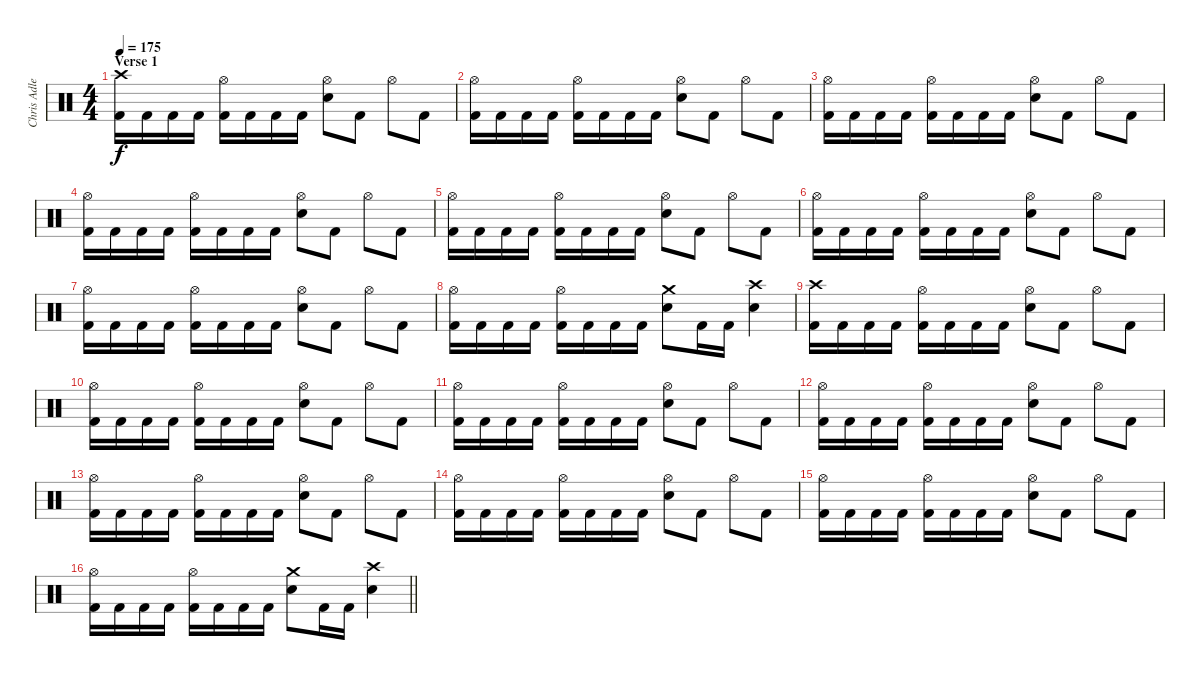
\track ("Chris Adler" "Chris Adle") {instrument percussion}
\staff {score}
\articulation defaults
\ts (4 4)
\section ("" "Verse 1")
\tempo 175
\clef neutral
\ks c
("Crash high (hit)" "Kick (hit) 2").16{dy f} "Kick (hit) 2".16 "Kick (hit) 2".16 "Kick (hit) 2".16 ("Hi-Hat (open)" "Kick (hit) 2").16 "Kick (hit) 2".16 "Kick (hit) 2".16 "Kick (hit) 2".16 ("Hi-Hat (open)" "Electric Snare (hit)").8 "Kick (hit) 2".8 "Hi-Hat (open)".8 "Kick (hit) 2".8 |
("Hi-Hat (open)" "Kick (hit) 2").16 "Kick (hit) 2".16 "Kick (hit) 2".16 "Kick (hit) 2".16 ("Hi-Hat (open)" "Kick (hit) 2").16 "Kick (hit) 2".16 "Kick (hit) 2".16 "Kick (hit) 2".16 ("Hi-Hat (open)" "Electric Snare (hit)").8 "Kick (hit) 2".8 "Hi-Hat (open)".8 "Kick (hit) 2".8 |
("Hi-Hat (open)" "Kick (hit) 2").16 "Kick (hit) 2".16 "Kick (hit) 2".16 "Kick (hit) 2".16 ("Hi-Hat (open)" "Kick (hit) 2").16 "Kick (hit) 2".16 "Kick (hit) 2".16 "Kick (hit) 2".16 ("Hi-Hat (open)" "Electric Snare (hit)").8 "Kick (hit) 2".8 "Hi-Hat (open)".8 "Kick (hit) 2".8 |
("Hi-Hat (open)" "Kick (hit) 2").16 "Kick (hit) 2".16 "Kick (hit) 2".16 "Kick (hit) 2".16 ("Hi-Hat (open)" "Kick (hit) 2").16 "Kick (hit) 2".16 "Kick (hit) 2".16 "Kick (hit) 2".16 ("Hi-Hat (open)" "Electric Snare (hit)").8 "Kick (hit) 2".8 "Hi-Hat (open)".8 "Kick (hit) 2".8 |
("Hi-Hat (open)" "Kick (hit) 2").16 "Kick (hit) 2".16 "Kick (hit) 2".16 "Kick (hit) 2".16 ("Hi-Hat (open)" "Kick (hit) 2").16 "Kick (hit) 2".16 "Kick (hit) 2".16 "Kick (hit) 2".16 ("Hi-Hat (open)" "Electric Snare (hit)").8 "Kick (hit) 2".8 "Hi-Hat (open)".8 "Kick (hit) 2".8 |
("Hi-Hat (open)" "Kick (hit) 2").16 "Kick (hit) 2".16 "Kick (hit) 2".16 "Kick (hit) 2".16 ("Hi-Hat (open)" "Kick (hit) 2").16 "Kick (hit) 2".16 "Kick (hit) 2".16 "Kick (hit) 2".16 ("Hi-Hat (open)" "Electric Snare (hit)").8 "Kick (hit) 2".8 "Hi-Hat (open)".8 "Kick (hit) 2".8 |
("Hi-Hat (open)" "Kick (hit) 2").16 "Kick (hit) 2".16 "Kick (hit) 2".16 "Kick (hit) 2".16 ("Hi-Hat (open)" "Kick (hit) 2").16 "Kick (hit) 2".16 "Kick (hit) 2".16 "Kick (hit) 2".16 ("Hi-Hat (open)" "Electric Snare (hit)").8 "Kick (hit) 2".8 "Hi-Hat (open)".8 "Kick (hit) 2".8 |
("Hi-Hat (open)" "Kick (hit) 2").16 "Kick (hit) 2".16 "Kick (hit) 2".16 "Kick (hit) 2".16 ("Hi-Hat (open)" "Kick (hit) 2").16 "Kick (hit) 2".16 "Kick (hit) 2".16 "Kick (hit) 2".16 ("Crash medium (hit)" "Electric Snare (hit)").8 "Kick (hit) 2".16 "Kick (hit) 2".16 ("Crash high (hit)" "Electric Snare (hit)").4 |
("Crash high (hit)" "Kick (hit) 2").16 "Kick (hit) 2".16 "Kick (hit) 2".16 "Kick (hit) 2".16 ("Hi-Hat (open)" "Kick (hit) 2").16 "Kick (hit) 2".16 "Kick (hit) 2".16 "Kick (hit) 2".16 ("Hi-Hat (open)" "Electric Snare (hit)").8 "Kick (hit) 2".8 "Hi-Hat (open)".8 "Kick (hit) 2".8 |
("Hi-Hat (open)" "Kick (hit) 2").16 "Kick (hit) 2".16 "Kick (hit) 2".16 "Kick (hit) 2".16 ("Hi-Hat (open)" "Kick (hit) 2").16 "Kick (hit) 2".16 "Kick (hit) 2".16 "Kick (hit) 2".16 ("Hi-Hat (open)" "Electric Snare (hit)").8 "Kick (hit) 2".8 "Hi-Hat (open)".8 "Kick (hit) 2".8 |
("Hi-Hat (open)" "Kick (hit) 2").16 "Kick (hit) 2".16 "Kick (hit) 2".16 "Kick (hit) 2".16 ("Hi-Hat (open)" "Kick (hit) 2").16 "Kick (hit) 2".16 "Kick (hit) 2".16 "Kick (hit) 2".16 ("Hi-Hat (open)" "Electric Snare (hit)").8 "Kick (hit) 2".8 "Hi-Hat (open)".8 "Kick (hit) 2".8 |
("Hi-Hat (open)" "Kick (hit) 2").16 "Kick (hit) 2".16 "Kick (hit) 2".16 "Kick (hit) 2".16 ("Hi-Hat (open)" "Kick (hit) 2").16 "Kick (hit) 2".16 "Kick (hit) 2".16 "Kick (hit) 2".16 ("Hi-Hat (open)" "Electric Snare (hit)").8 "Kick (hit) 2".8 "Hi-Hat (open)".8 "Kick (hit) 2".8 |
("Hi-Hat (open)" "Kick (hit) 2").16 "Kick (hit) 2".16 "Kick (hit) 2".16 "Kick (hit) 2".16 ("Hi-Hat (open)" "Kick (hit) 2").16 "Kick (hit) 2".16 "Kick (hit) 2".16 "Kick (hit) 2".16 ("Hi-Hat (open)" "Electric Snare (hit)").8 "Kick (hit) 2".8 "Hi-Hat (open)".8 "Kick (hit) 2".8 |
("Hi-Hat (open)" "Kick (hit) 2").16 "Kick (hit) 2".16 "Kick (hit) 2".16 "Kick (hit) 2".16 ("Hi-Hat (open)" "Kick (hit) 2").16 "Kick (hit) 2".16 "Kick (hit) 2".16 "Kick (hit) 2".16 ("Hi-Hat (open)" "Electric Snare (hit)").8 "Kick (hit) 2".8 "Hi-Hat (open)".8 "Kick (hit) 2".8 |
("Hi-Hat (open)" "Kick (hit) 2").16 "Kick (hit) 2".16 "Kick (hit) 2".16 "Kick (hit) 2".16 ("Hi-Hat (open)" "Kick (hit) 2").16 "Kick (hit) 2".16 "Kick (hit) 2".16 "Kick (hit) 2".16 ("Hi-Hat (open)" "Electric Snare (hit)").8 "Kick (hit) 2".8 "Hi-Hat (open)".8 "Kick (hit) 2".8 |
\barLineRight lightlight
("Hi-Hat (open)" "Kick (hit) 2").16 "Kick (hit) 2".16 "Kick (hit) 2".16 "Kick (hit) 2".16 ("Hi-Hat (open)" "Kick (hit) 2").16 "Kick (hit) 2".16 "Kick (hit) 2".16 "Kick (hit) 2".16 ("Crash medium (hit)" "Electric Snare (hit)").8 "Kick (hit) 2".16 "Kick (hit) 2".16 ("Crash high (hit)" "Electric Snare (hit)").4
